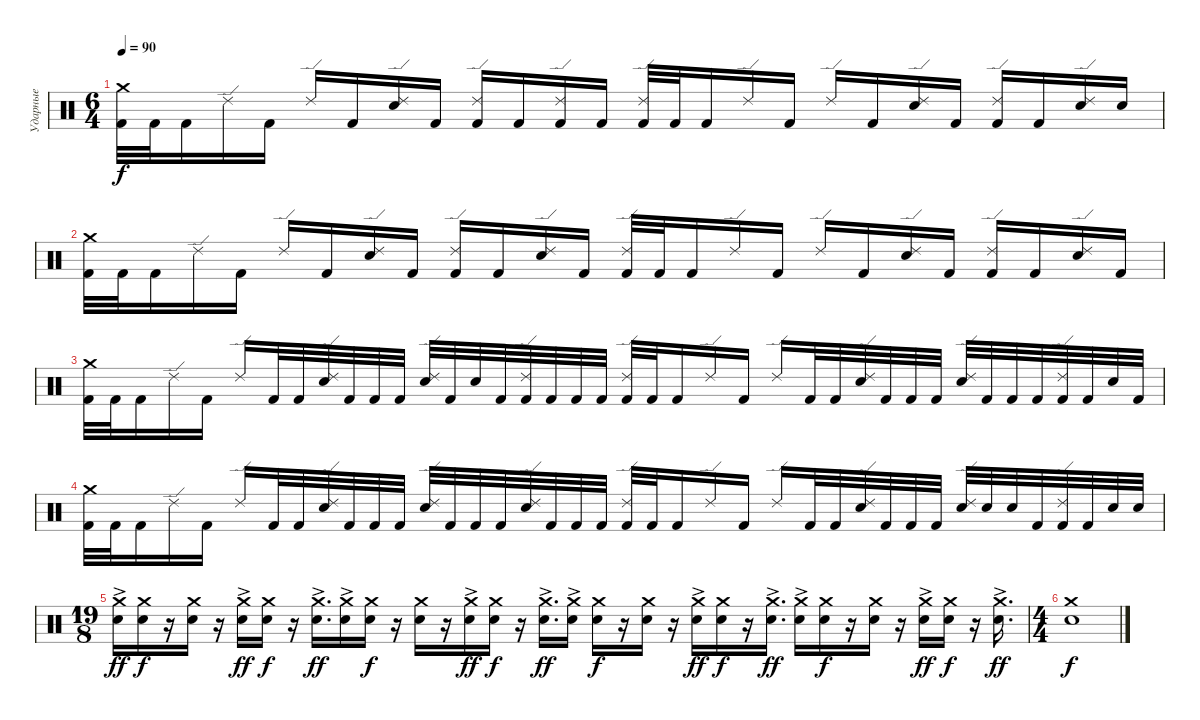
\track ("Ударные" "Ударные") {instrument percussion}
\staff {score}
\articulation defaults
\ts (6 4)
\tempo 90
\clef neutral
\ks c
("Crash medium (hit)" "Kick (hit) 2").32{dy f} "Kick (hit) 2".32 "Kick (hit) 2".16 "Ride (edge) 2".16 "Kick (hit) 2".16 "Ride (edge) 2".16 "Kick (hit) 2".16 ("Ride (edge) 2" "Electric Snare (hit)").16 "Kick (hit) 2".16 ("Ride (edge) 2" "Kick (hit) 2").16 "Kick (hit) 2".16 ("Ride (edge) 2" "Kick (hit) 2").16 "Kick (hit) 2".16 ("Ride (edge) 2" "Kick (hit) 2").32 "Kick (hit) 2".32 "Kick (hit) 2".16 "Ride (edge) 2".16 "Kick (hit) 2".16 "Ride (edge) 2".16 "Kick (hit) 2".16 ("Ride (edge) 2" "Electric Snare (hit)").16 "Kick (hit) 2".16 ("Ride (edge) 2" "Kick (hit) 2").16 "Kick (hit) 2".16 ("Ride (edge) 2" "Electric Snare (hit)").16 "Electric Snare (hit)".16 |
("Crash medium (hit)" "Kick (hit) 2").32 "Kick (hit) 2".32 "Kick (hit) 2".16 "Ride (edge) 2".16 "Kick (hit) 2".16 "Ride (edge) 2".16 "Kick (hit) 2".16 ("Ride (edge) 2" "Electric Snare (hit)").16 "Kick (hit) 2".16 ("Ride (edge) 2" "Kick (hit) 2").16 "Kick (hit) 2".16 ("Ride (edge) 2" "Electric Snare (hit)").16 "Kick (hit) 2".16 ("Ride (edge) 2" "Kick (hit) 2").32 "Kick (hit) 2".32 "Kick (hit) 2".16 "Ride (edge) 2".16 "Kick (hit) 2".16 "Ride (edge) 2".16 "Kick (hit) 2".16 ("Ride (edge) 2" "Electric Snare (hit)").16 "Kick (hit) 2".16 ("Ride (edge) 2" "Kick (hit) 2").16 "Kick (hit) 2".16 ("Ride (edge) 2" "Electric Snare (hit)").16 "Kick (hit) 2".16 |
("Crash medium (hit)" "Kick (hit) 2").32 "Kick (hit) 2".32 "Kick (hit) 2".16 "Ride (edge) 2".16 "Kick (hit) 2".16 "Ride (edge) 2".16 "Kick (hit) 2".32 "Kick (hit) 2".32 ("Ride (edge) 2" "Electric Snare (hit)").32 "Kick (hit) 2".32 "Kick (hit) 2".32 "Kick (hit) 2".32 ("Ride (edge) 2" "Electric Snare (hit)").32 "Kick (hit) 2".32 "Electric Snare (hit)".32 "Kick (hit) 2".32 ("Ride (edge) 2" "Kick (hit) 2").32 "Kick (hit) 2".32 "Kick (hit) 2".32 "Kick (hit) 2".32 ("Ride (edge) 2" "Kick (hit) 2").32 "Kick (hit) 2".32 "Kick (hit) 2".16 "Ride (edge) 2".16 "Kick (hit) 2".16 "Ride (edge) 2".16 "Kick (hit) 2".32 "Kick (hit) 2".32 ("Ride (edge) 2" "Electric Snare (hit)").32 "Kick (hit) 2".32 "Kick (hit) 2".32 "Kick (hit) 2".32 ("Ride (edge) 2" "Electric Snare (hit)").32 "Kick (hit) 2".32 "Kick (hit) 2".32 "Kick (hit) 2".32 ("Ride (edge) 2" "Kick (hit) 2").32 "Kick (hit) 2".32 "Electric Snare (hit)".32 "Kick (hit) 2".32 |
("Crash medium (hit)" "Kick (hit) 2").32 "Kick (hit) 2".32 "Kick (hit) 2".16 "Ride (edge) 2".16 "Kick (hit) 2".16 "Ride (edge) 2".16 "Kick (hit) 2".32 "Kick (hit) 2".32 ("Ride (edge) 2" "Electric Snare (hit)").32 "Kick (hit) 2".32 "Kick (hit) 2".32 "Kick (hit) 2".32 ("Ride (edge) 2" "Electric Snare (hit)").32 "Kick (hit) 2".32 "Kick (hit) 2".32 "Kick (hit) 2".32 ("Ride (edge) 2" "Electric Snare (hit)").32 "Kick (hit) 2".32 "Kick (hit) 2".32 "Kick (hit) 2".32 ("Ride (edge) 2" "Kick (hit) 2").32 "Kick (hit) 2".32 "Kick (hit) 2".16 "Ride (edge) 2".16 "Kick (hit) 2".16 "Ride (edge) 2".16 "Kick (hit) 2".32 "Kick (hit) 2".32 ("Ride (edge) 2" "Electric Snare (hit)").32 "Kick (hit) 2".32 "Kick (hit) 2".32 "Kick (hit) 2".32 ("Ride (edge) 2" "Electric Snare (hit)").32 "Electric Snare (hit)".32 "Electric Snare (hit)".32 "Kick (hit) 2".32 ("Ride (edge) 2" "Kick (hit) 2").32 "Kick (hit) 2".32 "Electric Snare (hit)".32 "Electric Snare (hit)".32 |
\ts (19 8)
("Crash medium (hit)" "Electric Snare (hit)"{ac}).16{dy ff} ("Crash medium (hit)" "Electric Snare (hit)").16{dy f} r.16 ("Crash medium (hit)" "Electric Snare (hit)").16 r.16 ("Crash medium (hit)" "Electric Snare (hit)"{ac}).16{dy ff} ("Crash medium (hit)" "Electric Snare (hit)").16{dy f} r.16 ("Crash medium (hit)" "Electric Snare (hit)"{ac}).16{d dy ff} ("Crash medium (hit)" "Electric Snare (hit)"{ac}).16 ("Crash medium (hit)" "Electric Snare (hit)").16{dy f} r.16 ("Crash medium (hit)" "Electric Snare (hit)").16 r.16 ("Crash medium (hit)" "Electric Snare (hit)"{ac}).16{dy ff} ("Crash medium (hit)" "Electric Snare (hit)").16{dy f} r.16 ("Crash medium (hit)" "Electric Snare (hit)"{ac}).16{d dy ff} ("Crash medium (hit)" "Electric Snare (hit)"{ac}).16 ("Crash medium (hit)" "Electric Snare (hit)").16{dy f} r.16 ("Crash medium (hit)" "Electric Snare (hit)").16 r.16 ("Crash medium (hit)" "Electric Snare (hit)"{ac}).16{dy ff} ("Crash medium (hit)" "Electric Snare (hit)").16{dy f} r.16 ("Crash medium (hit)" "Electric Snare (hit)"{ac}).16{d dy ff} ("Crash medium (hit)" "Electric Snare (hit)"{ac}).16 ("Crash medium (hit)" "Electric Snare (hit)").16{dy f} r.16 ("Crash medium (hit)" "Electric Snare (hit)").16 r.16 ("Crash medium (hit)" "Electric Snare (hit)"{ac}).16{dy ff} ("Crash medium (hit)" "Electric Snare (hit)").16{dy f} r.16 ("Crash medium (hit)" "Electric Snare (hit)"{ac}).16{d dy ff} |
\ts (4 4)
("Crash medium (hit)" "Electric Snare (hit)").1{dy f}
